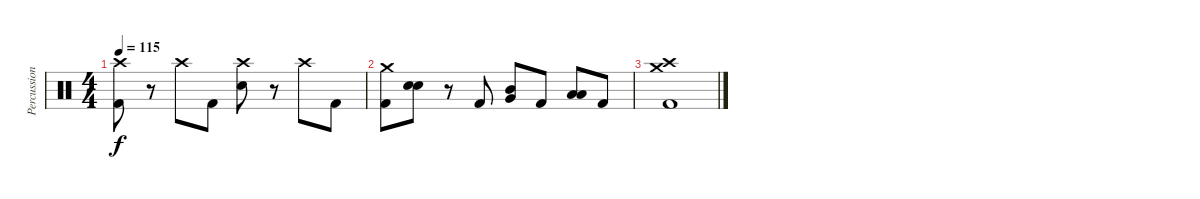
\track ("Percussion" "Percussion") {instrument percussion}
\staff {score}
\articulation defaults
\ts (4 4)
\tempo 115
\clef neutral
\ks c
("Kick (hit) 2" "Crash high (hit)").8{dy f} r.8 "Crash high (hit)".8 "Kick (hit) 2".8 ("Electric Snare (hit)" "Crash high (hit)").8 r.8 "Crash high (hit)".8 "Kick (hit) 2".8 |
("Kick (hit) 2" "Crash medium (hit)").8 ("Electric Snare (hit)" "Electric Snare (hit)").8 r.8 "Kick (hit) 2".8 ("Very Low Tom (hit)" "Mid Tom (hit)").8 "Kick (hit) 2".8 ("Low Floor Tom (hit)" "Low Tom (hit)").8 "Kick (hit) 2".8 |
("Kick (hit) 2" "Crash medium (hit)" "Crash high (hit)").1
